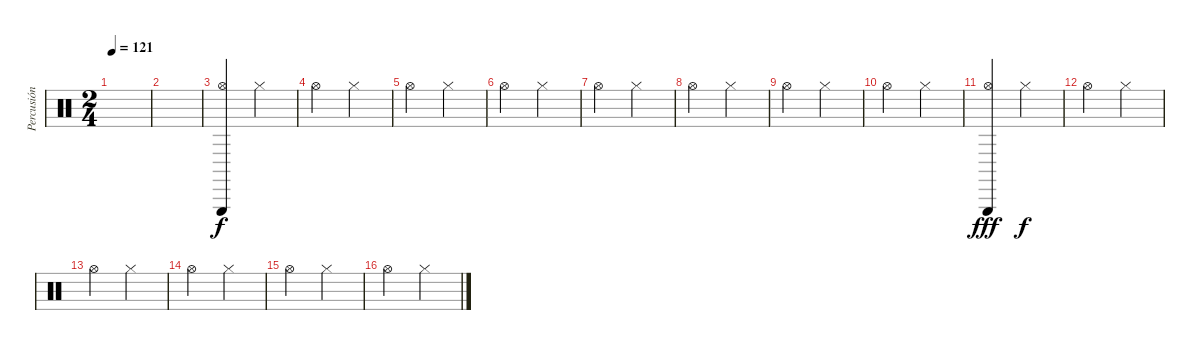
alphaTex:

\track ("Percusión" "Percusión") {instrument percussion}
\staff {score}
\articulation defaults
\ts (2 4)
\tempo 121
\clef neutral
\ks c
|
|
("Hi-Hat (open)" "Triangle (hit)").4 "Hi-Hat (closed)".4{dy f} |
"Hi-Hat (open)".4 "Hi-Hat (closed)".4 |
"Hi-Hat (open)".4 "Hi-Hat (closed)".4 |
"Hi-Hat (open)".4 "Hi-Hat (closed)".4 |
"Hi-Hat (open)".4 "Hi-Hat (closed)".4 |
"Hi-Hat (open)".4 "Hi-Hat (closed)".4 |
"Hi-Hat (open)".4 "Hi-Hat (closed)".4 |
"Hi-Hat (open)".4 "Hi-Hat (closed)".4 |
("Hi-Hat (open)" "Triangle (hit)").4{dy fff} "Hi-Hat (closed)".4{dy f} |
"Hi-Hat (open)".4 "Hi-Hat (closed)".4 |
"Hi-Hat (open)".4 "Hi-Hat (closed)".4 |
"Hi-Hat (open)".4 "Hi-Hat (closed)".4 |
"Hi-Hat (open)".4 "Hi-Hat (closed)".4 |
"Hi-Hat (open)".4 "Hi-Hat (closed)".4
